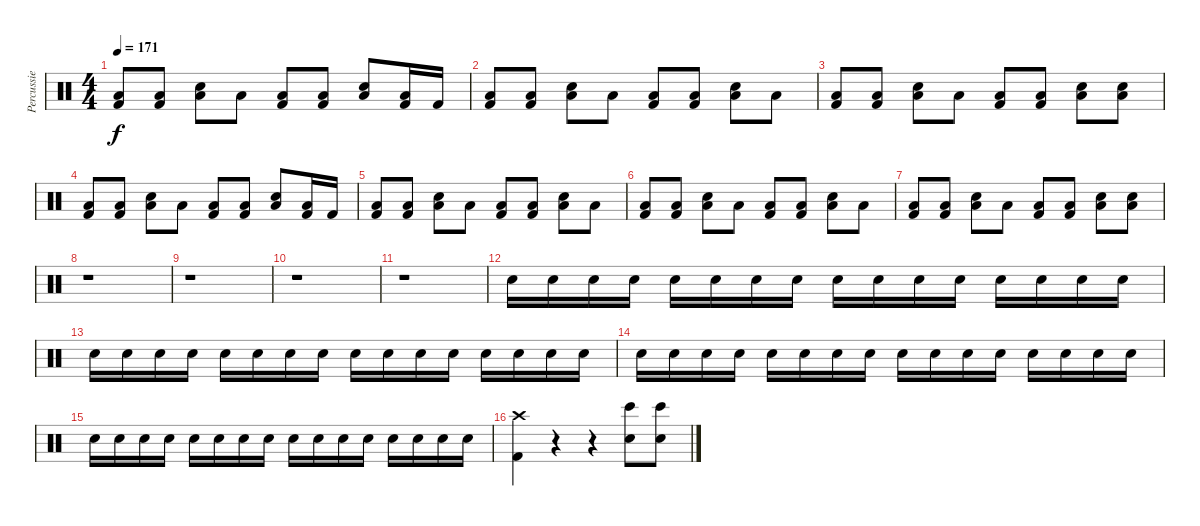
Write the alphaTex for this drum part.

\track ("Percussie" "Percussie") {instrument percussion}
\staff {score}
\articulation defaults
\ts (4 4)
\tempo 171
\clef neutral
\ks c
("Low Floor Tom (hit)" "Kick (hit) 2").8{dy f} ("Low Floor Tom (hit)" "Kick (hit) 2").8 ("Snare (hit) 2" "Low Floor Tom (hit)").8 "Low Floor Tom (hit)".8 ("Low Floor Tom (hit)" "Kick (hit) 2").8 ("Low Floor Tom (hit)" "Kick (hit) 2").8 ("Snare (hit) 2" "Low Floor Tom (hit)").8 ("Low Floor Tom (hit)" "Kick (hit) 2").16 "Kick (hit) 2".16 |
("Low Floor Tom (hit)" "Kick (hit) 2").8 ("Low Floor Tom (hit)" "Kick (hit) 2").8 ("Snare (hit) 2" "Low Floor Tom (hit)").8 "Low Floor Tom (hit)".8 ("Low Floor Tom (hit)" "Kick (hit) 2").8 ("Low Floor Tom (hit)" "Kick (hit) 2").8 ("Snare (hit) 2" "Low Floor Tom (hit)").8 "Low Floor Tom (hit)".8 |
("Low Floor Tom (hit)" "Kick (hit) 2").8 ("Low Floor Tom (hit)" "Kick (hit) 2").8 ("Snare (hit) 2" "Low Floor Tom (hit)").8 "Low Floor Tom (hit)".8 ("Low Floor Tom (hit)" "Kick (hit) 2").8 ("Low Floor Tom (hit)" "Kick (hit) 2").8 ("Snare (hit) 2" "Low Floor Tom (hit)").8 ("Snare (hit) 2" "Low Floor Tom (hit)").8 |
("Low Floor Tom (hit)" "Kick (hit) 2").8 ("Low Floor Tom (hit)" "Kick (hit) 2").8 ("Snare (hit) 2" "Low Floor Tom (hit)").8 "Low Floor Tom (hit)".8 ("Low Floor Tom (hit)" "Kick (hit) 2").8 ("Low Floor Tom (hit)" "Kick (hit) 2").8 ("Snare (hit) 2" "Low Floor Tom (hit)").8 ("Low Floor Tom (hit)" "Kick (hit) 2").16 "Kick (hit) 2".16 |
("Low Floor Tom (hit)" "Kick (hit) 2").8 ("Low Floor Tom (hit)" "Kick (hit) 2").8 ("Snare (hit) 2" "Low Floor Tom (hit)").8 "Low Floor Tom (hit)".8 ("Low Floor Tom (hit)" "Kick (hit) 2").8 ("Low Floor Tom (hit)" "Kick (hit) 2").8 ("Snare (hit) 2" "Low Floor Tom (hit)").8 "Low Floor Tom (hit)".8 |
("Low Floor Tom (hit)" "Kick (hit) 2").8 ("Low Floor Tom (hit)" "Kick (hit) 2").8 ("Snare (hit) 2" "Low Floor Tom (hit)").8 "Low Floor Tom (hit)".8 ("Low Floor Tom (hit)" "Kick (hit) 2").8 ("Low Floor Tom (hit)" "Kick (hit) 2").8 ("Snare (hit) 2" "Low Floor Tom (hit)").8 "Low Floor Tom (hit)".8 |
("Low Floor Tom (hit)" "Kick (hit) 2").8 ("Low Floor Tom (hit)" "Kick (hit) 2").8 ("Snare (hit) 2" "Low Floor Tom (hit)").8 "Low Floor Tom (hit)".8 ("Low Floor Tom (hit)" "Kick (hit) 2").8 ("Low Floor Tom (hit)" "Kick (hit) 2").8 ("Snare (hit) 2" "Low Floor Tom (hit)").8 ("Snare (hit) 2" "Low Floor Tom (hit)").8 |
r.1 |
r.1 |
r.1 |
r.1 |
"Snare (hit) 2".16 "Snare (hit) 2".16 "Snare (hit) 2".16 "Snare (hit) 2".16 "Snare (hit) 2".16 "Snare (hit) 2".16 "Snare (hit) 2".16 "Snare (hit) 2".16 "Snare (hit) 2".16 "Snare (hit) 2".16 "Snare (hit) 2".16 "Snare (hit) 2".16 "Snare (hit) 2".16 "Snare (hit) 2".16 "Snare (hit) 2".16 "Snare (hit) 2".16 |
"Snare (hit) 2".16 "Snare (hit) 2".16 "Snare (hit) 2".16 "Snare (hit) 2".16 "Snare (hit) 2".16 "Snare (hit) 2".16 "Snare (hit) 2".16 "Snare (hit) 2".16 "Snare (hit) 2".16 "Snare (hit) 2".16 "Snare (hit) 2".16 "Snare (hit) 2".16 "Snare (hit) 2".16 "Snare (hit) 2".16 "Snare (hit) 2".16 "Snare (hit) 2".16 |
"Snare (hit) 2".16 "Snare (hit) 2".16 "Snare (hit) 2".16 "Snare (hit) 2".16 "Snare (hit) 2".16 "Snare (hit) 2".16 "Snare (hit) 2".16 "Snare (hit) 2".16 "Snare (hit) 2".16 "Snare (hit) 2".16 "Snare (hit) 2".16 "Snare (hit) 2".16 "Snare (hit) 2".16 "Snare (hit) 2".16 "Snare (hit) 2".16 "Snare (hit) 2".16 |
"Snare (hit) 2".16 "Snare (hit) 2".16 "Snare (hit) 2".16 "Snare (hit) 2".16 "Snare (hit) 2".16 "Snare (hit) 2".16 "Snare (hit) 2".16 "Snare (hit) 2".16 "Snare (hit) 2".16 "Snare (hit) 2".16 "Snare (hit) 2".16 "Snare (hit) 2".16 "Snare (hit) 2".16 "Snare (hit) 2".16 "Snare (hit) 2".16 "Snare (hit) 2".16 |
("Crash high (hit)" "Kick (hit) 2").4 r.4 r.4 ("Snare (hit) 2" "Bongo High (hit)").8 ("Snare (hit) 2" "Bongo High (hit)").8
